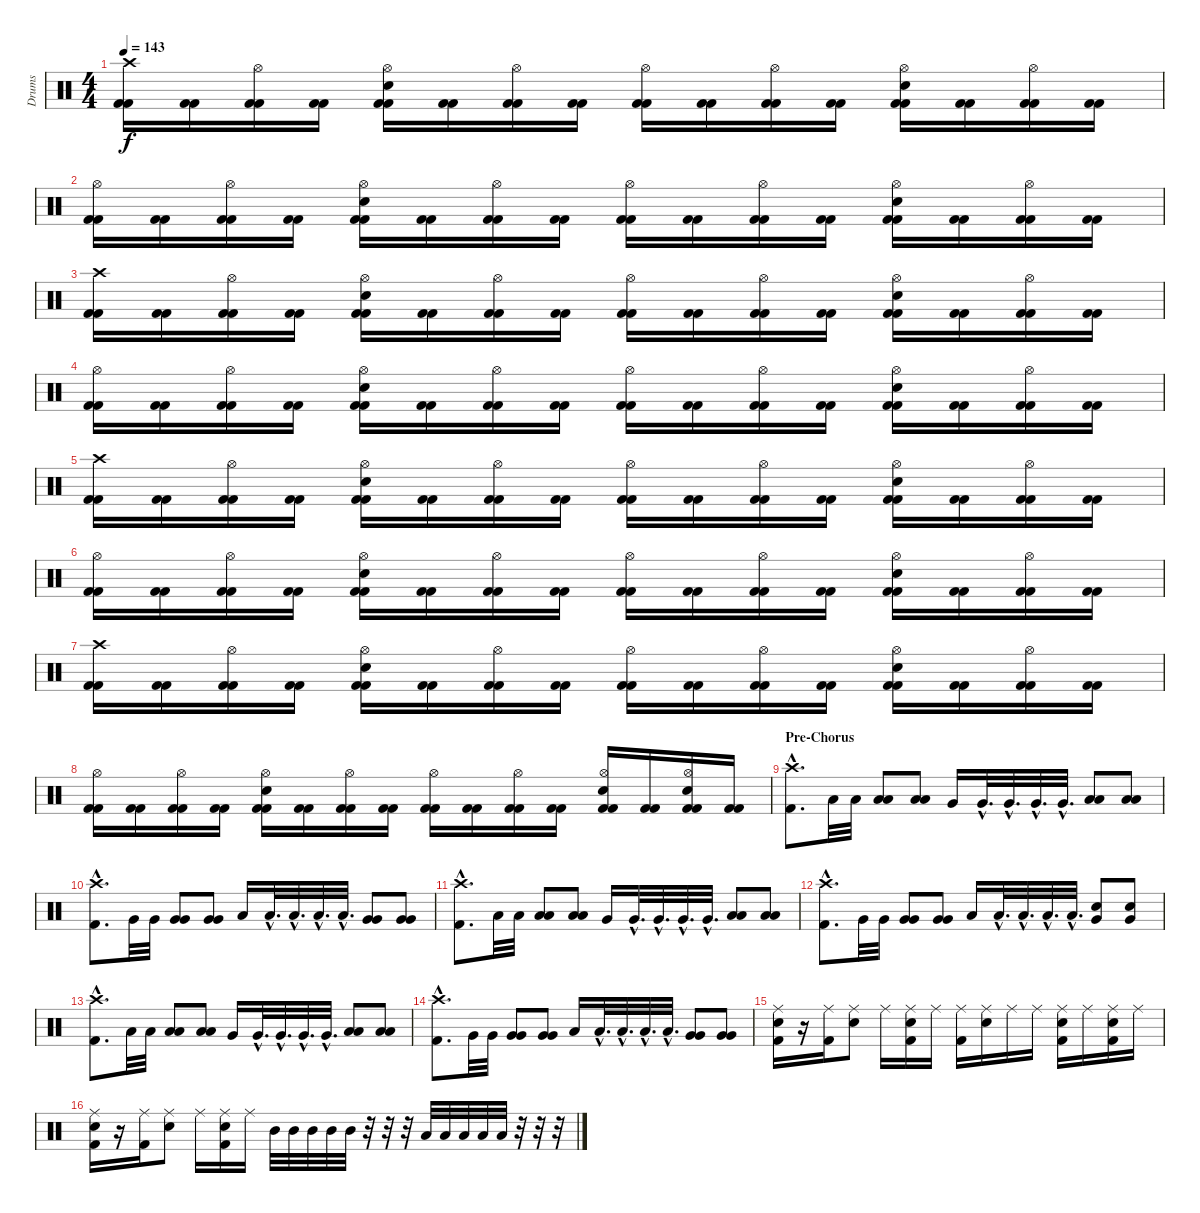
\track ("Drums" "Drums") {instrument percussion}
\staff {score}
\articulation defaults
\ts (4 4)
\tempo 143
\clef neutral
\ks c
("Kick (hit) 2" "Kick (hit) 2" "Crash high (hit)").16{dy f} ("Kick (hit) 2" "Kick (hit) 2").16 ("Kick (hit) 2" "Kick (hit) 2" "Hi-Hat (open)").16 ("Kick (hit) 2" "Kick (hit) 2").16 ("Kick (hit) 2" "Kick (hit) 2" "Electric Snare (hit)" "Hi-Hat (open)").16 ("Kick (hit) 2" "Kick (hit) 2").16 ("Kick (hit) 2" "Kick (hit) 2" "Hi-Hat (open)").16 ("Kick (hit) 2" "Kick (hit) 2").16 ("Kick (hit) 2" "Kick (hit) 2" "Hi-Hat (open)").16 ("Kick (hit) 2" "Kick (hit) 2").16 ("Kick (hit) 2" "Kick (hit) 2" "Hi-Hat (open)").16 ("Kick (hit) 2" "Kick (hit) 2").16 ("Kick (hit) 2" "Kick (hit) 2" "Electric Snare (hit)" "Hi-Hat (open)").16 ("Kick (hit) 2" "Kick (hit) 2").16 ("Kick (hit) 2" "Kick (hit) 2" "Hi-Hat (open)").16 ("Kick (hit) 2" "Kick (hit) 2").16 |
("Kick (hit) 2" "Kick (hit) 2" "Hi-Hat (open)").16 ("Kick (hit) 2" "Kick (hit) 2").16 ("Kick (hit) 2" "Kick (hit) 2" "Hi-Hat (open)").16 ("Kick (hit) 2" "Kick (hit) 2").16 ("Kick (hit) 2" "Kick (hit) 2" "Electric Snare (hit)" "Hi-Hat (open)").16 ("Kick (hit) 2" "Kick (hit) 2").16 ("Kick (hit) 2" "Kick (hit) 2" "Hi-Hat (open)").16 ("Kick (hit) 2" "Kick (hit) 2").16 ("Kick (hit) 2" "Kick (hit) 2" "Hi-Hat (open)").16 ("Kick (hit) 2" "Kick (hit) 2").16 ("Kick (hit) 2" "Kick (hit) 2" "Hi-Hat (open)").16 ("Kick (hit) 2" "Kick (hit) 2").16 ("Kick (hit) 2" "Kick (hit) 2" "Electric Snare (hit)" "Hi-Hat (open)").16 ("Kick (hit) 2" "Kick (hit) 2").16 ("Kick (hit) 2" "Kick (hit) 2" "Hi-Hat (open)").16 ("Kick (hit) 2" "Kick (hit) 2").16 |
("Kick (hit) 2" "Kick (hit) 2" "Crash high (hit)").16 ("Kick (hit) 2" "Kick (hit) 2").16 ("Kick (hit) 2" "Kick (hit) 2" "Hi-Hat (open)").16 ("Kick (hit) 2" "Kick (hit) 2").16 ("Kick (hit) 2" "Kick (hit) 2" "Electric Snare (hit)" "Hi-Hat (open)").16 ("Kick (hit) 2" "Kick (hit) 2").16 ("Kick (hit) 2" "Kick (hit) 2" "Hi-Hat (open)").16 ("Kick (hit) 2" "Kick (hit) 2").16 ("Kick (hit) 2" "Kick (hit) 2" "Hi-Hat (open)").16 ("Kick (hit) 2" "Kick (hit) 2").16 ("Kick (hit) 2" "Kick (hit) 2" "Hi-Hat (open)").16 ("Kick (hit) 2" "Kick (hit) 2").16 ("Kick (hit) 2" "Kick (hit) 2" "Electric Snare (hit)" "Hi-Hat (open)").16 ("Kick (hit) 2" "Kick (hit) 2").16 ("Kick (hit) 2" "Kick (hit) 2" "Hi-Hat (open)").16 ("Kick (hit) 2" "Kick (hit) 2").16 |
("Kick (hit) 2" "Kick (hit) 2" "Hi-Hat (open)").16 ("Kick (hit) 2" "Kick (hit) 2").16 ("Kick (hit) 2" "Kick (hit) 2" "Hi-Hat (open)").16 ("Kick (hit) 2" "Kick (hit) 2").16 ("Kick (hit) 2" "Kick (hit) 2" "Electric Snare (hit)" "Hi-Hat (open)").16 ("Kick (hit) 2" "Kick (hit) 2").16 ("Kick (hit) 2" "Kick (hit) 2" "Hi-Hat (open)").16 ("Kick (hit) 2" "Kick (hit) 2").16 ("Kick (hit) 2" "Kick (hit) 2" "Hi-Hat (open)").16 ("Kick (hit) 2" "Kick (hit) 2").16 ("Kick (hit) 2" "Kick (hit) 2" "Hi-Hat (open)").16 ("Kick (hit) 2" "Kick (hit) 2").16 ("Kick (hit) 2" "Kick (hit) 2" "Electric Snare (hit)" "Hi-Hat (open)").16 ("Kick (hit) 2" "Kick (hit) 2").16 ("Kick (hit) 2" "Kick (hit) 2" "Hi-Hat (open)").16 ("Kick (hit) 2" "Kick (hit) 2").16 |
("Kick (hit) 2" "Kick (hit) 2" "Crash high (hit)").16 ("Kick (hit) 2" "Kick (hit) 2").16 ("Kick (hit) 2" "Kick (hit) 2" "Hi-Hat (open)").16 ("Kick (hit) 2" "Kick (hit) 2").16 ("Kick (hit) 2" "Kick (hit) 2" "Electric Snare (hit)" "Hi-Hat (open)").16 ("Kick (hit) 2" "Kick (hit) 2").16 ("Kick (hit) 2" "Kick (hit) 2" "Hi-Hat (open)").16 ("Kick (hit) 2" "Kick (hit) 2").16 ("Kick (hit) 2" "Kick (hit) 2" "Hi-Hat (open)").16 ("Kick (hit) 2" "Kick (hit) 2").16 ("Kick (hit) 2" "Kick (hit) 2" "Hi-Hat (open)").16 ("Kick (hit) 2" "Kick (hit) 2").16 ("Kick (hit) 2" "Kick (hit) 2" "Electric Snare (hit)" "Hi-Hat (open)").16 ("Kick (hit) 2" "Kick (hit) 2").16 ("Kick (hit) 2" "Kick (hit) 2" "Hi-Hat (open)").16 ("Kick (hit) 2" "Kick (hit) 2").16 |
("Kick (hit) 2" "Kick (hit) 2" "Hi-Hat (open)").16 ("Kick (hit) 2" "Kick (hit) 2").16 ("Kick (hit) 2" "Kick (hit) 2" "Hi-Hat (open)").16 ("Kick (hit) 2" "Kick (hit) 2").16 ("Kick (hit) 2" "Kick (hit) 2" "Electric Snare (hit)" "Hi-Hat (open)").16 ("Kick (hit) 2" "Kick (hit) 2").16 ("Kick (hit) 2" "Kick (hit) 2" "Hi-Hat (open)").16 ("Kick (hit) 2" "Kick (hit) 2").16 ("Kick (hit) 2" "Kick (hit) 2" "Hi-Hat (open)").16 ("Kick (hit) 2" "Kick (hit) 2").16 ("Kick (hit) 2" "Kick (hit) 2" "Hi-Hat (open)").16 ("Kick (hit) 2" "Kick (hit) 2").16 ("Kick (hit) 2" "Kick (hit) 2" "Electric Snare (hit)" "Hi-Hat (open)").16 ("Kick (hit) 2" "Kick (hit) 2").16 ("Kick (hit) 2" "Kick (hit) 2" "Hi-Hat (open)").16 ("Kick (hit) 2" "Kick (hit) 2").16 |
("Kick (hit) 2" "Kick (hit) 2" "Crash high (hit)").16 ("Kick (hit) 2" "Kick (hit) 2").16 ("Kick (hit) 2" "Kick (hit) 2" "Hi-Hat (open)").16 ("Kick (hit) 2" "Kick (hit) 2").16 ("Kick (hit) 2" "Kick (hit) 2" "Electric Snare (hit)" "Hi-Hat (open)").16 ("Kick (hit) 2" "Kick (hit) 2").16 ("Kick (hit) 2" "Kick (hit) 2" "Hi-Hat (open)").16 ("Kick (hit) 2" "Kick (hit) 2").16 ("Kick (hit) 2" "Kick (hit) 2" "Hi-Hat (open)").16 ("Kick (hit) 2" "Kick (hit) 2").16 ("Kick (hit) 2" "Kick (hit) 2" "Hi-Hat (open)").16 ("Kick (hit) 2" "Kick (hit) 2").16 ("Kick (hit) 2" "Kick (hit) 2" "Electric Snare (hit)" "Hi-Hat (open)").16 ("Kick (hit) 2" "Kick (hit) 2").16 ("Kick (hit) 2" "Kick (hit) 2" "Hi-Hat (open)").16 ("Kick (hit) 2" "Kick (hit) 2").16 |
("Kick (hit) 2" "Kick (hit) 2" "Hi-Hat (open)").16 ("Kick (hit) 2" "Kick (hit) 2").16 ("Kick (hit) 2" "Kick (hit) 2" "Hi-Hat (open)").16 ("Kick (hit) 2" "Kick (hit) 2").16 ("Kick (hit) 2" "Kick (hit) 2" "Electric Snare (hit)" "Hi-Hat (open)").16 ("Kick (hit) 2" "Kick (hit) 2").16 ("Kick (hit) 2" "Kick (hit) 2" "Hi-Hat (open)").16 ("Kick (hit) 2" "Kick (hit) 2").16 ("Kick (hit) 2" "Kick (hit) 2" "Hi-Hat (open)").16 ("Kick (hit) 2" "Kick (hit) 2").16 ("Kick (hit) 2" "Kick (hit) 2" "Hi-Hat (open)").16 ("Kick (hit) 2" "Kick (hit) 2").16 ("Kick (hit) 2" "Kick (hit) 2" "Electric Snare (hit)" "Hi-Hat (open)").16 ("Kick (hit) 2" "Kick (hit) 2").16 ("Kick (hit) 2" "Kick (hit) 2" "Electric Snare (hit)" "Hi-Hat (open)").16 ("Kick (hit) 2" "Kick (hit) 2").16 |
\section ("" "Pre-Chorus")
("Kick (hit) 2"{hac} "Crash high (hit)"{hac}).8{d} "Low Tom (hit)".32 "Low Tom (hit)".32 ("Low Tom (hit)" "Low Tom (hit)").8 ("Low Tom (hit)" "Low Tom (hit)").8 "Very Low Tom (hit)".16 "Very Low Tom (hit)"{hac}.32{d} "Very Low Tom (hit)"{hac}.32{d} "Very Low Tom (hit)"{hac}.32{d} "Very Low Tom (hit)"{hac}.32{d} ("Low Tom (hit)" "Low Tom (hit)").8 ("Low Tom (hit)" "Low Tom (hit)").8 |
("Kick (hit) 2"{hac} "Crash high (hit)"{hac}).8{d} "Very Low Tom (hit)".32 "Very Low Tom (hit)".32 ("Very Low Tom (hit)" "Very Low Tom (hit)").8 ("Very Low Tom (hit)" "Very Low Tom (hit)").8 "Low Floor Tom (hit)".16 "Low Floor Tom (hit)"{hac}.32{d} "Low Floor Tom (hit)"{hac}.32{d} "Low Floor Tom (hit)"{hac}.32{d} "Low Floor Tom (hit)"{hac}.32{d} ("Very Low Tom (hit)" "Very Low Tom (hit)").8 ("Very Low Tom (hit)" "Very Low Tom (hit)").8 |
("Kick (hit) 2"{hac} "Crash high (hit)"{hac}).8{d} "Low Tom (hit)".32 "Low Tom (hit)".32 ("Low Tom (hit)" "Low Tom (hit)").8 ("Low Tom (hit)" "Low Tom (hit)").8 "Very Low Tom (hit)".16 "Very Low Tom (hit)"{hac}.32{d} "Very Low Tom (hit)"{hac}.32{d} "Very Low Tom (hit)"{hac}.32{d} "Very Low Tom (hit)"{hac}.32{d} ("Low Tom (hit)" "Low Tom (hit)").8 ("Low Tom (hit)" "Low Tom (hit)").8 |
("Kick (hit) 2"{hac} "Crash high (hit)"{hac}).8{d} "Very Low Tom (hit)".32 "Very Low Tom (hit)".32 ("Very Low Tom (hit)" "Very Low Tom (hit)").8 ("Very Low Tom (hit)" "Very Low Tom (hit)").8 "Low Floor Tom (hit)".16 "Low Floor Tom (hit)"{hac}.32{d} "Low Floor Tom (hit)"{hac}.32{d} "Low Floor Tom (hit)"{hac}.32{d} "Low Floor Tom (hit)"{hac}.32{d} ("Electric Snare (hit)" "Very Low Tom (hit)").8 ("Electric Snare (hit)" "Very Low Tom (hit)").8 |
("Kick (hit) 2"{hac} "Crash high (hit)"{hac}).8{d} "Low Tom (hit)".32 "Low Tom (hit)".32 ("Low Tom (hit)" "Low Tom (hit)").8 ("Low Tom (hit)" "Low Tom (hit)").8 "Very Low Tom (hit)".16 "Very Low Tom (hit)"{hac}.32{d} "Very Low Tom (hit)"{hac}.32{d} "Very Low Tom (hit)"{hac}.32{d} "Very Low Tom (hit)"{hac}.32{d} ("Low Tom (hit)" "Low Tom (hit)").8 ("Low Tom (hit)" "Low Tom (hit)").8 |
("Kick (hit) 2"{hac} "Crash high (hit)"{hac}).8{d} "Very Low Tom (hit)".32 "Very Low Tom (hit)".32 ("Very Low Tom (hit)" "Very Low Tom (hit)").8 ("Very Low Tom (hit)" "Very Low Tom (hit)").8 "Low Floor Tom (hit)".16 "Low Floor Tom (hit)"{hac}.32{d} "Low Floor Tom (hit)"{hac}.32{d} "Low Floor Tom (hit)"{hac}.32{d} "Low Floor Tom (hit)"{hac}.32{d} ("Very Low Tom (hit)" "Very Low Tom (hit)").8 ("Very Low Tom (hit)" "Very Low Tom (hit)").8 |
("Kick (hit) 2" "Electric Snare (hit)" "Ride (middle)").16 r.16 ("Kick (hit) 2" "Ride (middle)").16 ("Electric Snare (hit)" "Ride (middle)").8 "Ride (middle)".16 ("Kick (hit) 2" "Electric Snare (hit)" "Ride (middle)").16 "Ride (middle)".16 ("Kick (hit) 2" "Ride (middle)").16 ("Electric Snare (hit)" "Ride (middle)").16 "Ride (middle)".16 "Ride (middle)".16 ("Kick (hit) 2" "Electric Snare (hit)" "Ride (middle)").16 "Ride (middle)".16 ("Kick (hit) 2" "Electric Snare (hit)" "Ride (middle)").16 "Ride (middle)".16 |
("Kick (hit) 2" "Electric Snare (hit)" "Ride (middle)").16 r.16 ("Kick (hit) 2" "Ride (middle)").16 ("Electric Snare (hit)" "Ride (middle)").8 "Ride (middle)".16 ("Kick (hit) 2" "Electric Snare (hit)" "Ride (middle)").16 "Ride (middle)".16 "Mid Tom (hit)".32 "Mid Tom (hit)".32 "Mid Tom (hit)".32 "Mid Tom (hit)".32 "Mid Tom (hit)".32 r.32 r.32 r.32 "Low Tom (hit)".32 "Low Tom (hit)".32 "Low Tom (hit)".32 "Low Tom (hit)".32 "Low Tom (hit)".32 r.32 r.32 r.32
